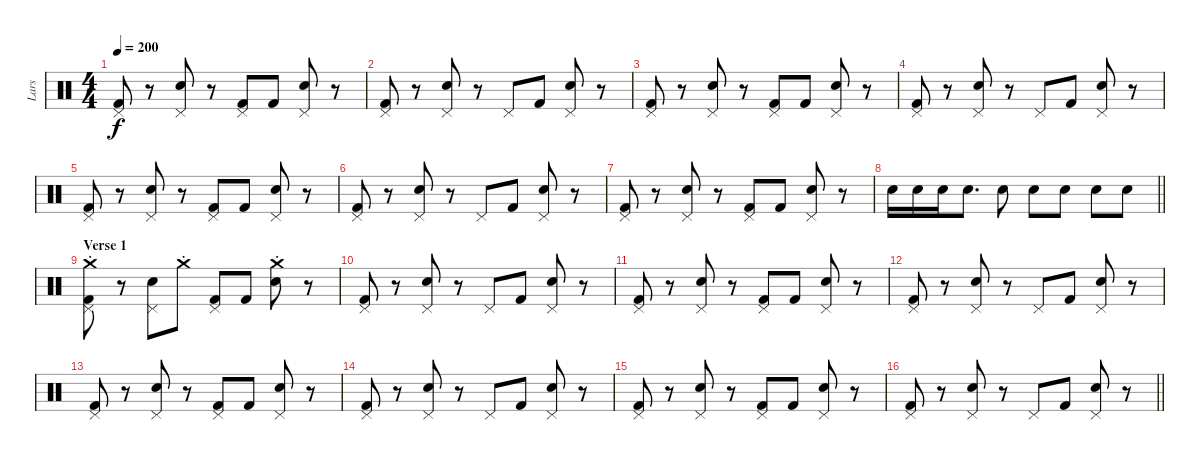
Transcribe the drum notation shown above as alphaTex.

\track ("Lars" "Lars") {instrument percussion}
\staff {score}
\articulation defaults
\ts (4 4)
\tempo 200
\clef neutral
\ks c
("Pedal Hi-Hat (hit)" "Kick (hit) 2").8{dy f} r.8 ("Pedal Hi-Hat (hit)" "Snare (hit) 2").8 r.8 ("Pedal Hi-Hat (hit)" "Kick (hit) 2").8 "Kick (hit) 2".8 ("Pedal Hi-Hat (hit)" "Snare (hit) 2").8 r.8 |
("Pedal Hi-Hat (hit)" "Kick (hit) 2").8 r.8 ("Pedal Hi-Hat (hit)" "Snare (hit) 2").8 r.8 "Pedal Hi-Hat (hit)".8 "Kick (hit) 2".8 ("Pedal Hi-Hat (hit)" "Snare (hit) 2").8 r.8 |
("Pedal Hi-Hat (hit)" "Kick (hit) 2").8 r.8 ("Pedal Hi-Hat (hit)" "Snare (hit) 2").8 r.8 ("Pedal Hi-Hat (hit)" "Kick (hit) 2").8 "Kick (hit) 2".8 ("Pedal Hi-Hat (hit)" "Snare (hit) 2").8 r.8 |
("Pedal Hi-Hat (hit)" "Kick (hit) 2").8 r.8 ("Pedal Hi-Hat (hit)" "Snare (hit) 2").8 r.8 "Pedal Hi-Hat (hit)".8 "Kick (hit) 2".8 ("Pedal Hi-Hat (hit)" "Snare (hit) 2").8 r.8 |
("Pedal Hi-Hat (hit)" "Kick (hit) 2").8 r.8 ("Pedal Hi-Hat (hit)" "Snare (hit) 2").8 r.8 ("Pedal Hi-Hat (hit)" "Kick (hit) 2").8 "Kick (hit) 2".8 ("Pedal Hi-Hat (hit)" "Snare (hit) 2").8 r.8 |
("Pedal Hi-Hat (hit)" "Kick (hit) 2").8 r.8 ("Pedal Hi-Hat (hit)" "Snare (hit) 2").8 r.8 "Pedal Hi-Hat (hit)".8 "Kick (hit) 2".8 ("Pedal Hi-Hat (hit)" "Snare (hit) 2").8 r.8 |
("Pedal Hi-Hat (hit)" "Kick (hit) 2").8 r.8 ("Pedal Hi-Hat (hit)" "Snare (hit) 2").8 r.8 ("Pedal Hi-Hat (hit)" "Kick (hit) 2").8 "Kick (hit) 2".8 ("Pedal Hi-Hat (hit)" "Snare (hit) 2").8 r.8 |
\barLineRight lightlight "Snare (hit) 2".16 "Snare (hit) 2".16 "Snare (hit) 2".16 "Snare (hit) 2".8{d} "Snare (hit) 2".8 "Snare (hit) 2".8 "Snare (hit) 2".8 "Snare (hit) 2".8 "Snare (hit) 2".8
|
\section ("" "Verse 1")
("Crash medium (hit)"{st} "Pedal Hi-Hat (hit)" "Kick (hit) 2").8 r.8 ("Pedal Hi-Hat (hit)" "Snare (hit) 2").8 "Crash medium (hit)"{st}.8 ("Pedal Hi-Hat (hit)" "Kick (hit) 2").8 "Kick (hit) 2".8 ("Crash medium (hit)"{st} "Snare (hit) 2").8 r.8 |
("Pedal Hi-Hat (hit)" "Kick (hit) 2").8 r.8 ("Pedal Hi-Hat (hit)" "Snare (hit) 2").8 r.8 "Pedal Hi-Hat (hit)".8 "Kick (hit) 2".8 ("Pedal Hi-Hat (hit)" "Snare (hit) 2").8 r.8 |
("Pedal Hi-Hat (hit)" "Kick (hit) 2").8 r.8 ("Pedal Hi-Hat (hit)" "Snare (hit) 2").8 r.8 ("Pedal Hi-Hat (hit)" "Kick (hit) 2").8 "Kick (hit) 2".8 ("Pedal Hi-Hat (hit)" "Snare (hit) 2").8 r.8 |
("Pedal Hi-Hat (hit)" "Kick (hit) 2").8 r.8 ("Pedal Hi-Hat (hit)" "Snare (hit) 2").8 r.8 "Pedal Hi-Hat (hit)".8 "Kick (hit) 2".8 ("Pedal Hi-Hat (hit)" "Snare (hit) 2").8 r.8 |
("Pedal Hi-Hat (hit)" "Kick (hit) 2").8 r.8 ("Pedal Hi-Hat (hit)" "Snare (hit) 2").8 r.8 ("Pedal Hi-Hat (hit)" "Kick (hit) 2").8 "Kick (hit) 2".8 ("Pedal Hi-Hat (hit)" "Snare (hit) 2").8 r.8 |
("Pedal Hi-Hat (hit)" "Kick (hit) 2").8 r.8 ("Pedal Hi-Hat (hit)" "Snare (hit) 2").8 r.8 "Pedal Hi-Hat (hit)".8 "Kick (hit) 2".8 ("Pedal Hi-Hat (hit)" "Snare (hit) 2").8 r.8 |
("Pedal Hi-Hat (hit)" "Kick (hit) 2").8 r.8 ("Pedal Hi-Hat (hit)" "Snare (hit) 2").8 r.8 ("Pedal Hi-Hat (hit)" "Kick (hit) 2").8 "Kick (hit) 2".8 ("Pedal Hi-Hat (hit)" "Snare (hit) 2").8 r.8 |
\barLineRight lightlight
("Pedal Hi-Hat (hit)" "Kick (hit) 2").8 r.8 ("Pedal Hi-Hat (hit)" "Snare (hit) 2").8 r.8 "Pedal Hi-Hat (hit)".8 "Kick (hit) 2".8 ("Pedal Hi-Hat (hit)" "Snare (hit) 2").8 r.8
